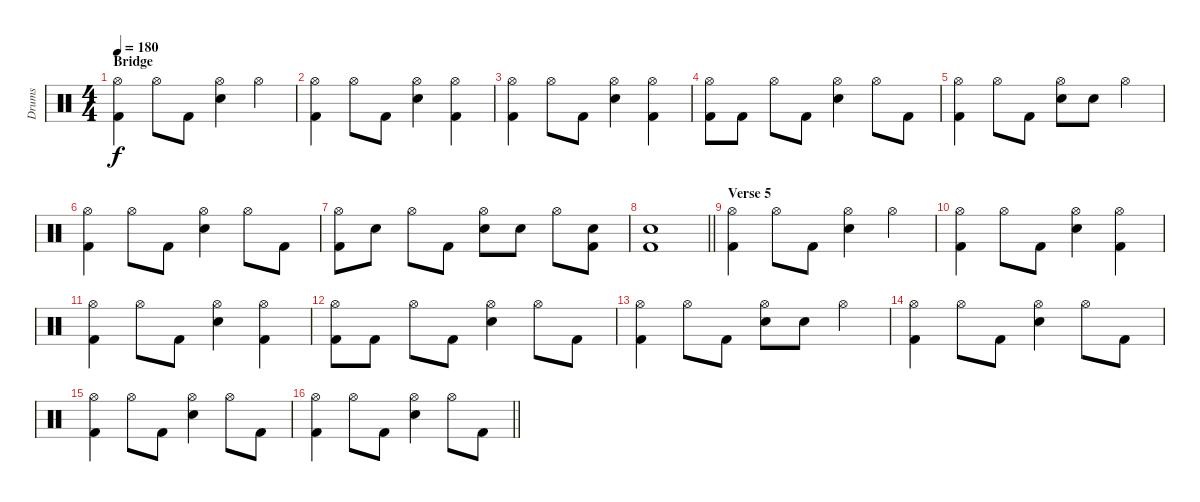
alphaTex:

\track ("Drums" "Drums") {instrument percussion}
\staff {score}
\articulation defaults
\ts (4 4)
\section ("" "Bridge")
\tempo 180
\clef neutral
\ks c
("Hi-Hat (open)" "Kick (hit) 2").4{dy f} "Hi-Hat (open)".8 "Kick (hit) 2".8 ("Hi-Hat (open)" "Electric Snare (hit)").4 "Hi-Hat (open)".4 |
("Hi-Hat (open)" "Kick (hit) 2").4 "Hi-Hat (open)".8 "Kick (hit) 2".8 ("Hi-Hat (open)" "Electric Snare (hit)").4 ("Hi-Hat (open)" "Kick (hit) 2").4 |
("Hi-Hat (open)" "Kick (hit) 2").4 "Hi-Hat (open)".8 "Kick (hit) 2".8 ("Hi-Hat (open)" "Electric Snare (hit)").4 ("Hi-Hat (open)" "Kick (hit) 2").4 |
("Hi-Hat (open)" "Kick (hit) 2").8 "Kick (hit) 2".8 "Hi-Hat (open)".8 "Kick (hit) 2".8 ("Hi-Hat (open)" "Electric Snare (hit)").4 "Hi-Hat (open)".8 "Kick (hit) 2".8 |
("Hi-Hat (open)" "Kick (hit) 2").4 "Hi-Hat (open)".8 "Kick (hit) 2".8 ("Hi-Hat (open)" "Electric Snare (hit)").8 "Electric Snare (hit)".8 "Hi-Hat (open)".4 |
("Hi-Hat (open)" "Kick (hit) 2").4 "Hi-Hat (open)".8 "Kick (hit) 2".8 ("Hi-Hat (open)" "Electric Snare (hit)").4 "Hi-Hat (open)".8 "Kick (hit) 2".8 |
("Hi-Hat (open)" "Kick (hit) 2").8 "Electric Snare (hit)".8 "Hi-Hat (open)".8 "Kick (hit) 2".8 ("Hi-Hat (open)" "Electric Snare (hit)").8 "Electric Snare (hit)".8 "Hi-Hat (open)".8 ("Electric Snare (hit)" "Kick (hit) 2").8 |
\barLineRight lightlight
("Electric Snare (hit)" "Kick (hit) 2").1 |
\section ("" "Verse 5")
("Hi-Hat (open)" "Kick (hit) 2").4 "Hi-Hat (open)".8 "Kick (hit) 2".8 ("Hi-Hat (open)" "Electric Snare (hit)").4 "Hi-Hat (open)".4 |
("Hi-Hat (open)" "Kick (hit) 2").4 "Hi-Hat (open)".8 "Kick (hit) 2".8 ("Hi-Hat (open)" "Electric Snare (hit)").4 ("Hi-Hat (open)" "Kick (hit) 2").4 |
("Hi-Hat (open)" "Kick (hit) 2").4 "Hi-Hat (open)".8 "Kick (hit) 2".8 ("Hi-Hat (open)" "Electric Snare (hit)").4 ("Hi-Hat (open)" "Kick (hit) 2").4 |
("Hi-Hat (open)" "Kick (hit) 2").8 "Kick (hit) 2".8 "Hi-Hat (open)".8 "Kick (hit) 2".8 ("Hi-Hat (open)" "Electric Snare (hit)").4 "Hi-Hat (open)".8 "Kick (hit) 2".8 |
("Hi-Hat (open)" "Kick (hit) 2").4 "Hi-Hat (open)".8 "Kick (hit) 2".8 ("Hi-Hat (open)" "Electric Snare (hit)").8 "Electric Snare (hit)".8 "Hi-Hat (open)".4 |
("Hi-Hat (open)" "Kick (hit) 2").4 "Hi-Hat (open)".8 "Kick (hit) 2".8 ("Hi-Hat (open)" "Electric Snare (hit)").4 "Hi-Hat (open)".8 "Kick (hit) 2".8 |
("Hi-Hat (open)" "Kick (hit) 2").4 "Hi-Hat (open)".8 "Kick (hit) 2".8 ("Hi-Hat (open)" "Electric Snare (hit)").4 "Hi-Hat (open)".8 "Kick (hit) 2".8 |
\barLineRight lightlight
("Hi-Hat (open)" "Kick (hit) 2").4 "Hi-Hat (open)".8 "Kick (hit) 2".8 ("Hi-Hat (open)" "Electric Snare (hit)").4 "Hi-Hat (open)".8 "Kick (hit) 2".8
